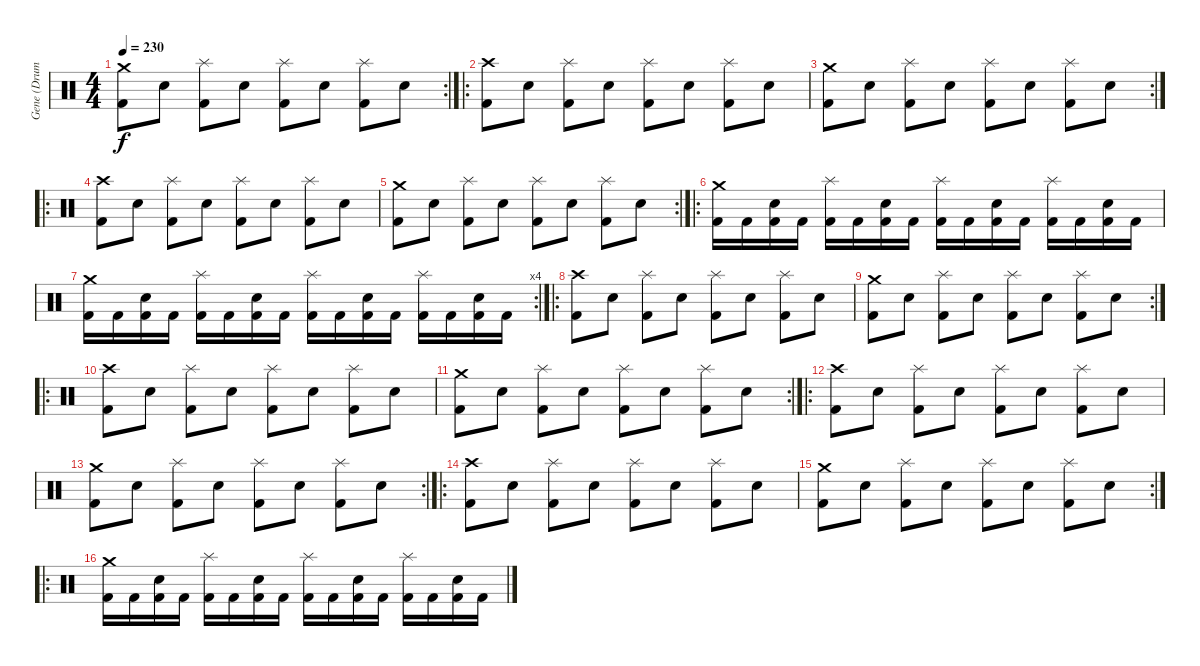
\track ("Gene (Drums)" "Gene (Drum") {instrument percussion}
\staff {score}
\articulation defaults
\rc 2
\ts (4 4)
\tempo 230
\clef neutral
\ks c
("Crash medium (hit)" "Kick (hit) 2").8{dy f} "Electric Snare (hit)".8 ("Splash (hit)" "Kick (hit) 2").8 "Electric Snare (hit)".8 ("Splash (hit)" "Kick (hit) 2").8 "Electric Snare (hit)".8 ("Splash (hit)" "Kick (hit) 2").8 "Electric Snare (hit)".8 |
\ro
("Crash high (hit)" "Kick (hit) 2").8 "Electric Snare (hit)".8 ("Splash (hit)" "Kick (hit) 2").8 "Electric Snare (hit)".8 ("Splash (hit)" "Kick (hit) 2").8 "Electric Snare (hit)".8 ("Splash (hit)" "Kick (hit) 2").8 "Electric Snare (hit)".8 |
\rc 2
("Crash medium (hit)" "Kick (hit) 2").8 "Electric Snare (hit)".8 ("Splash (hit)" "Kick (hit) 2").8 "Electric Snare (hit)".8 ("Splash (hit)" "Kick (hit) 2").8 "Electric Snare (hit)".8 ("Splash (hit)" "Kick (hit) 2").8 "Electric Snare (hit)".8 |
\ro
("Crash high (hit)" "Kick (hit) 2").8 "Electric Snare (hit)".8 ("Splash (hit)" "Kick (hit) 2").8 "Electric Snare (hit)".8 ("Splash (hit)" "Kick (hit) 2").8 "Electric Snare (hit)".8 ("Splash (hit)" "Kick (hit) 2").8 "Electric Snare (hit)".8 |
\rc 2
("Crash medium (hit)" "Kick (hit) 2").8 "Electric Snare (hit)".8 ("Splash (hit)" "Kick (hit) 2").8 "Electric Snare (hit)".8 ("Splash (hit)" "Kick (hit) 2").8 "Electric Snare (hit)".8 ("Splash (hit)" "Kick (hit) 2").8 "Electric Snare (hit)".8 |
\ro
("Crash medium (hit)" "Kick (hit) 2").16 "Kick (hit) 2".16 ("Electric Snare (hit)" "Kick (hit) 2").16 "Kick (hit) 2".16 ("Splash (hit)" "Kick (hit) 2").16 "Kick (hit) 2".16 ("Electric Snare (hit)" "Kick (hit) 2").16 "Kick (hit) 2".16 ("Splash (hit)" "Kick (hit) 2").16 "Kick (hit) 2".16 ("Electric Snare (hit)" "Kick (hit) 2").16 "Kick (hit) 2".16 ("Splash (hit)" "Kick (hit) 2").16 "Kick (hit) 2".16 ("Electric Snare (hit)" "Kick (hit) 2").16 "Kick (hit) 2".16 |
\rc 4
("Crash medium (hit)" "Kick (hit) 2").16 "Kick (hit) 2".16 ("Electric Snare (hit)" "Kick (hit) 2").16 "Kick (hit) 2".16 ("Splash (hit)" "Kick (hit) 2").16 "Kick (hit) 2".16 ("Electric Snare (hit)" "Kick (hit) 2").16 "Kick (hit) 2".16 ("Splash (hit)" "Kick (hit) 2").16 "Kick (hit) 2".16 ("Electric Snare (hit)" "Kick (hit) 2").16 "Kick (hit) 2".16 ("Splash (hit)" "Kick (hit) 2").16 "Kick (hit) 2".16 ("Electric Snare (hit)" "Kick (hit) 2").16 "Kick (hit) 2".16 |
\ro
("Crash high (hit)" "Kick (hit) 2").8 "Electric Snare (hit)".8 ("Splash (hit)" "Kick (hit) 2").8 "Electric Snare (hit)".8 ("Splash (hit)" "Kick (hit) 2").8 "Electric Snare (hit)".8 ("Splash (hit)" "Kick (hit) 2").8 "Electric Snare (hit)".8 |
\rc 2
("Crash medium (hit)" "Kick (hit) 2").8 "Electric Snare (hit)".8 ("Splash (hit)" "Kick (hit) 2").8 "Electric Snare (hit)".8 ("Splash (hit)" "Kick (hit) 2").8 "Electric Snare (hit)".8 ("Splash (hit)" "Kick (hit) 2").8 "Electric Snare (hit)".8 |
\ro
("Crash high (hit)" "Kick (hit) 2").8 "Electric Snare (hit)".8 ("Splash (hit)" "Kick (hit) 2").8 "Electric Snare (hit)".8 ("Splash (hit)" "Kick (hit) 2").8 "Electric Snare (hit)".8 ("Splash (hit)" "Kick (hit) 2").8 "Electric Snare (hit)".8 |
\rc 2
("Crash medium (hit)" "Kick (hit) 2").8 "Electric Snare (hit)".8 ("Splash (hit)" "Kick (hit) 2").8 "Electric Snare (hit)".8 ("Splash (hit)" "Kick (hit) 2").8 "Electric Snare (hit)".8 ("Splash (hit)" "Kick (hit) 2").8 "Electric Snare (hit)".8 |
\ro
("Crash high (hit)" "Kick (hit) 2").8 "Electric Snare (hit)".8 ("Splash (hit)" "Kick (hit) 2").8 "Electric Snare (hit)".8 ("Splash (hit)" "Kick (hit) 2").8 "Electric Snare (hit)".8 ("Splash (hit)" "Kick (hit) 2").8 "Electric Snare (hit)".8 |
\rc 2
("Crash medium (hit)" "Kick (hit) 2").8 "Electric Snare (hit)".8 ("Splash (hit)" "Kick (hit) 2").8 "Electric Snare (hit)".8 ("Splash (hit)" "Kick (hit) 2").8 "Electric Snare (hit)".8 ("Splash (hit)" "Kick (hit) 2").8 "Electric Snare (hit)".8 |
\ro
("Crash high (hit)" "Kick (hit) 2").8 "Electric Snare (hit)".8 ("Splash (hit)" "Kick (hit) 2").8 "Electric Snare (hit)".8 ("Splash (hit)" "Kick (hit) 2").8 "Electric Snare (hit)".8 ("Splash (hit)" "Kick (hit) 2").8 "Electric Snare (hit)".8 |
\rc 2
("Crash medium (hit)" "Kick (hit) 2").8 "Electric Snare (hit)".8 ("Splash (hit)" "Kick (hit) 2").8 "Electric Snare (hit)".8 ("Splash (hit)" "Kick (hit) 2").8 "Electric Snare (hit)".8 ("Splash (hit)" "Kick (hit) 2").8 "Electric Snare (hit)".8 |
\ro
("Crash medium (hit)" "Kick (hit) 2").16 "Kick (hit) 2".16 ("Electric Snare (hit)" "Kick (hit) 2").16 "Kick (hit) 2".16 ("Splash (hit)" "Kick (hit) 2").16 "Kick (hit) 2".16 ("Electric Snare (hit)" "Kick (hit) 2").16 "Kick (hit) 2".16 ("Splash (hit)" "Kick (hit) 2").16 "Kick (hit) 2".16 ("Electric Snare (hit)" "Kick (hit) 2").16 "Kick (hit) 2".16 ("Splash (hit)" "Kick (hit) 2").16 "Kick (hit) 2".16 ("Electric Snare (hit)" "Kick (hit) 2").16 "Kick (hit) 2".16
